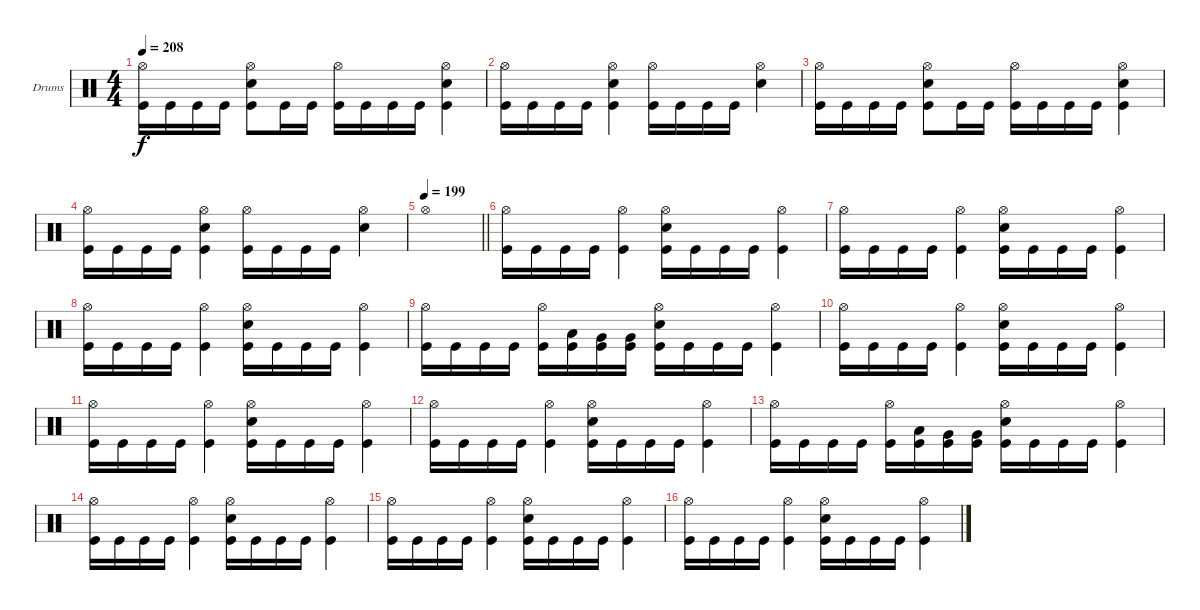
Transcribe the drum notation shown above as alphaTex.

\bracketExtendMode groupsimilarinstruments
\firstSystemTrackNameOrientation horizontal
\otherSystemsTrackNameOrientation horizontal
\track ("Drumkit" "Drums") {instrument percussion}
\staff {score}
\articulation defaults
\ts (4 4)
\tempo 208
\clef neutral
\ks c
("Hi-Hat (open)" "Kick (hit)").16{dy f} "Kick (hit)".16 "Kick (hit)".16 "Kick (hit)".16 ("Hi-Hat (open)" "Kick (hit)" "Snare (hit) 2").8 "Kick (hit)".16 "Kick (hit)".16 ("Hi-Hat (open)" "Kick (hit)").16 "Kick (hit)".16 "Kick (hit)".16 "Kick (hit)".16 ("Hi-Hat (open)" "Kick (hit)" "Snare (hit) 2").4 |
("Hi-Hat (open)" "Kick (hit)").16 "Kick (hit)".16 "Kick (hit)".16 "Kick (hit)".16 ("Hi-Hat (open)" "Kick (hit)" "Snare (hit) 2").4 ("Hi-Hat (open)" "Kick (hit)").16 "Kick (hit)".16 "Kick (hit)".16 "Kick (hit)".16 ("Hi-Hat (open)" "Snare (hit) 2").4 |
("Hi-Hat (open)" "Kick (hit)").16 "Kick (hit)".16 "Kick (hit)".16 "Kick (hit)".16 ("Hi-Hat (open)" "Kick (hit)" "Snare (hit) 2").8 "Kick (hit)".16 "Kick (hit)".16 ("Hi-Hat (open)" "Kick (hit)").16 "Kick (hit)".16 "Kick (hit)".16 "Kick (hit)".16 ("Hi-Hat (open)" "Kick (hit)" "Snare (hit) 2").4 |
("Hi-Hat (open)" "Kick (hit)").16 "Kick (hit)".16 "Kick (hit)".16 "Kick (hit)".16 ("Hi-Hat (open)" "Kick (hit)" "Snare (hit) 2").4 ("Hi-Hat (open)" "Kick (hit)").16 "Kick (hit)".16 "Kick (hit)".16 "Kick (hit)".16 ("Hi-Hat (open)" "Snare (hit) 2").4 |
\tempo 199
\barLineRight lightlight "Hi-Hat (open)".1
|
("Hi-Hat (open)" "Kick (hit)").16 "Kick (hit)".16 "Kick (hit)".16 "Kick (hit)".16 ("Hi-Hat (open)" "Kick (hit)").4 ("Hi-Hat (open)" "Kick (hit)" "Snare (hit) 2").16 "Kick (hit)".16 "Kick (hit)".16 "Kick (hit)".16 ("Hi-Hat (open)" "Kick (hit)").4 |
("Hi-Hat (open)" "Kick (hit)").16 "Kick (hit)".16 "Kick (hit)".16 "Kick (hit)".16 ("Hi-Hat (open)" "Kick (hit)").4 ("Hi-Hat (open)" "Kick (hit)" "Snare (hit) 2").16 "Kick (hit)".16 "Kick (hit)".16 "Kick (hit)".16 ("Hi-Hat (open)" "Kick (hit)").4 |
("Hi-Hat (open)" "Kick (hit)").16 "Kick (hit)".16 "Kick (hit)".16 "Kick (hit)".16 ("Hi-Hat (open)" "Kick (hit)").4 ("Hi-Hat (open)" "Kick (hit)" "Snare (hit) 2").16 "Kick (hit)".16 "Kick (hit)".16 "Kick (hit)".16 ("Hi-Hat (open)" "Kick (hit)").4 |
("Hi-Hat (open)" "Kick (hit)").16 "Kick (hit)".16 "Kick (hit)".16 "Kick (hit)".16 ("Hi-Hat (open)" "Kick (hit)").16 ("Kick (hit)" "Low Tom (hit)").16 ("Kick (hit)" "Very Low Tom (hit)").16 ("Kick (hit)" "Very Low Tom (hit)").16 ("Hi-Hat (open)" "Kick (hit)" "Snare (hit) 2").16 "Kick (hit)".16 "Kick (hit)".16 "Kick (hit)".16 ("Hi-Hat (open)" "Kick (hit)").4 |
("Hi-Hat (open)" "Kick (hit)").16 "Kick (hit)".16 "Kick (hit)".16 "Kick (hit)".16 ("Hi-Hat (open)" "Kick (hit)").4 ("Hi-Hat (open)" "Kick (hit)" "Snare (hit) 2").16 "Kick (hit)".16 "Kick (hit)".16 "Kick (hit)".16 ("Hi-Hat (open)" "Kick (hit)").4 |
("Hi-Hat (open)" "Kick (hit)").16 "Kick (hit)".16 "Kick (hit)".16 "Kick (hit)".16 ("Hi-Hat (open)" "Kick (hit)").4 ("Hi-Hat (open)" "Kick (hit)" "Snare (hit) 2").16 "Kick (hit)".16 "Kick (hit)".16 "Kick (hit)".16 ("Hi-Hat (open)" "Kick (hit)").4 |
("Hi-Hat (open)" "Kick (hit)").16 "Kick (hit)".16 "Kick (hit)".16 "Kick (hit)".16 ("Hi-Hat (open)" "Kick (hit)").4 ("Hi-Hat (open)" "Kick (hit)" "Snare (hit) 2").16 "Kick (hit)".16 "Kick (hit)".16 "Kick (hit)".16 ("Hi-Hat (open)" "Kick (hit)").4 |
("Hi-Hat (open)" "Kick (hit)").16 "Kick (hit)".16 "Kick (hit)".16 "Kick (hit)".16 ("Hi-Hat (open)" "Kick (hit)").16 ("Kick (hit)" "Low Tom (hit)").16 ("Kick (hit)" "Very Low Tom (hit)").16 ("Kick (hit)" "Very Low Tom (hit)").16 ("Hi-Hat (open)" "Kick (hit)" "Snare (hit) 2").16 "Kick (hit)".16 "Kick (hit)".16 "Kick (hit)".16 ("Hi-Hat (open)" "Kick (hit)").4 |
("Hi-Hat (open)" "Kick (hit)").16 "Kick (hit)".16 "Kick (hit)".16 "Kick (hit)".16 ("Hi-Hat (open)" "Kick (hit)").4 ("Hi-Hat (open)" "Kick (hit)" "Snare (hit) 2").16 "Kick (hit)".16 "Kick (hit)".16 "Kick (hit)".16 ("Hi-Hat (open)" "Kick (hit)").4 |
("Hi-Hat (open)" "Kick (hit)").16 "Kick (hit)".16 "Kick (hit)".16 "Kick (hit)".16 ("Hi-Hat (open)" "Kick (hit)").4 ("Hi-Hat (open)" "Kick (hit)" "Snare (hit) 2").16 "Kick (hit)".16 "Kick (hit)".16 "Kick (hit)".16 ("Hi-Hat (open)" "Kick (hit)").4 |
("Hi-Hat (open)" "Kick (hit)").16 "Kick (hit)".16 "Kick (hit)".16 "Kick (hit)".16 ("Hi-Hat (open)" "Kick (hit)").4 ("Hi-Hat (open)" "Kick (hit)" "Snare (hit) 2").16 "Kick (hit)".16 "Kick (hit)".16 "Kick (hit)".16 ("Hi-Hat (open)" "Kick (hit)").4
